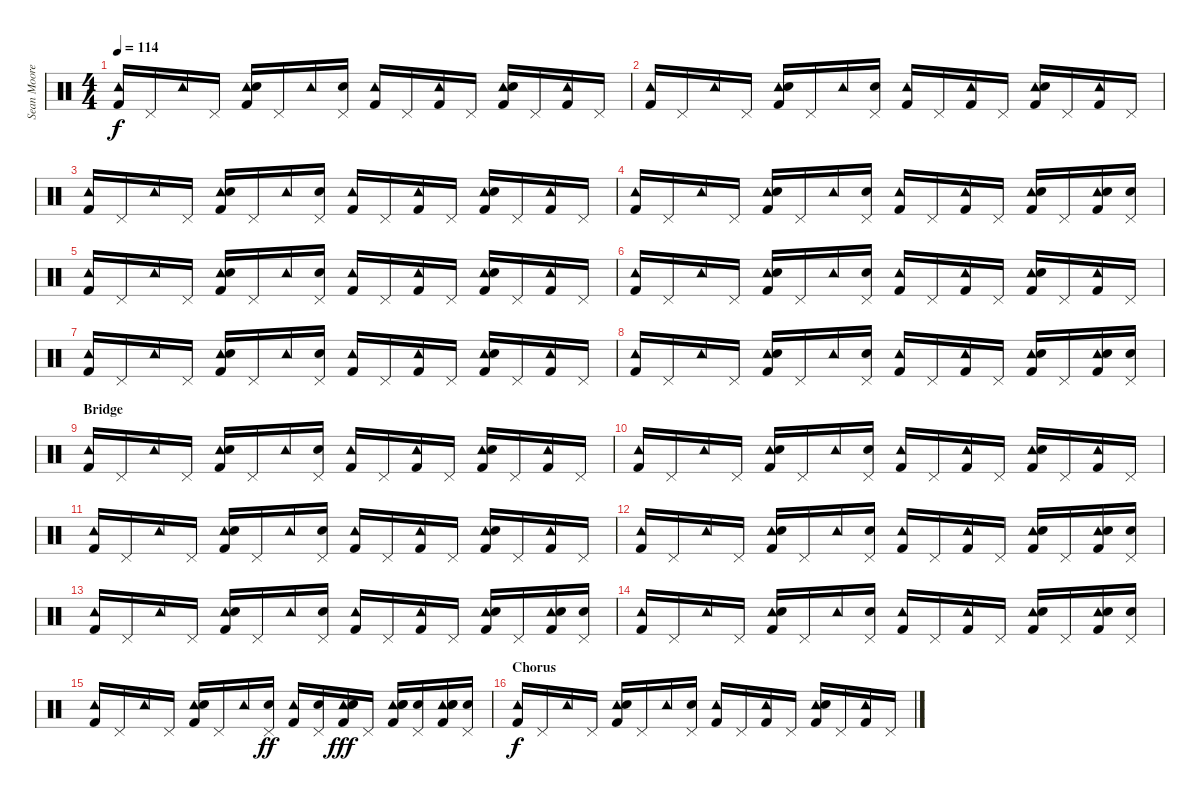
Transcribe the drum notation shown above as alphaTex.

\track ("Sean Moore" "Sean Moore") {instrument percussion}
\staff {score}
\articulation defaults
\ts (4 4)
\tempo 114
\clef neutral
\ks c
("Tambourine (hit)" "Kick (hit) 2").16{dy f} "Pedal Hi-Hat (hit)".16 "Tambourine (hit)".16 "Pedal Hi-Hat (hit)".16 ("Tambourine (hit)" "Snare (hit) 2" "Kick (hit) 2").16 "Pedal Hi-Hat (hit)".16 "Tambourine (hit)".16 ("Snare (hit) 2" "Pedal Hi-Hat (hit)").16 ("Tambourine (hit)" "Kick (hit) 2").16 "Pedal Hi-Hat (hit)".16 ("Tambourine (hit)" "Kick (hit) 2").16 "Pedal Hi-Hat (hit)".16 ("Tambourine (hit)" "Snare (hit) 2" "Kick (hit) 2").16 "Pedal Hi-Hat (hit)".16 ("Tambourine (hit)" "Kick (hit) 2").16 "Pedal Hi-Hat (hit)".16 |
("Tambourine (hit)" "Kick (hit) 2").16 "Pedal Hi-Hat (hit)".16 "Tambourine (hit)".16 "Pedal Hi-Hat (hit)".16 ("Tambourine (hit)" "Snare (hit) 2" "Kick (hit) 2").16 "Pedal Hi-Hat (hit)".16 "Tambourine (hit)".16 ("Snare (hit) 2" "Pedal Hi-Hat (hit)").16 ("Tambourine (hit)" "Kick (hit) 2").16 "Pedal Hi-Hat (hit)".16 ("Tambourine (hit)" "Kick (hit) 2").16 "Pedal Hi-Hat (hit)".16 ("Tambourine (hit)" "Snare (hit) 2" "Kick (hit) 2").16 "Pedal Hi-Hat (hit)".16 ("Tambourine (hit)" "Kick (hit) 2").16 "Pedal Hi-Hat (hit)".16 |
("Tambourine (hit)" "Kick (hit) 2").16 "Pedal Hi-Hat (hit)".16 "Tambourine (hit)".16 "Pedal Hi-Hat (hit)".16 ("Tambourine (hit)" "Snare (hit) 2" "Kick (hit) 2").16 "Pedal Hi-Hat (hit)".16 "Tambourine (hit)".16 ("Snare (hit) 2" "Pedal Hi-Hat (hit)").16 ("Tambourine (hit)" "Kick (hit) 2").16 "Pedal Hi-Hat (hit)".16 ("Tambourine (hit)" "Kick (hit) 2").16 "Pedal Hi-Hat (hit)".16 ("Tambourine (hit)" "Snare (hit) 2" "Kick (hit) 2").16 "Pedal Hi-Hat (hit)".16 ("Tambourine (hit)" "Kick (hit) 2").16 "Pedal Hi-Hat (hit)".16 |
("Tambourine (hit)" "Kick (hit) 2").16 "Pedal Hi-Hat (hit)".16 "Tambourine (hit)".16 "Pedal Hi-Hat (hit)".16 ("Tambourine (hit)" "Snare (hit) 2" "Kick (hit) 2").16 "Pedal Hi-Hat (hit)".16 "Tambourine (hit)".16 ("Snare (hit) 2" "Pedal Hi-Hat (hit)").16 ("Tambourine (hit)" "Kick (hit) 2").16 "Pedal Hi-Hat (hit)".16 ("Tambourine (hit)" "Kick (hit) 2").16 "Pedal Hi-Hat (hit)".16 ("Tambourine (hit)" "Snare (hit) 2" "Kick (hit) 2").16 "Pedal Hi-Hat (hit)".16 ("Tambourine (hit)" "Snare (hit) 2" "Kick (hit) 2").16 ("Snare (hit) 2" "Pedal Hi-Hat (hit)").16 |
("Tambourine (hit)" "Kick (hit) 2").16 "Pedal Hi-Hat (hit)".16 "Tambourine (hit)".16 "Pedal Hi-Hat (hit)".16 ("Tambourine (hit)" "Snare (hit) 2" "Kick (hit) 2").16 "Pedal Hi-Hat (hit)".16 "Tambourine (hit)".16 ("Snare (hit) 2" "Pedal Hi-Hat (hit)").16 ("Tambourine (hit)" "Kick (hit) 2").16 "Pedal Hi-Hat (hit)".16 ("Tambourine (hit)" "Kick (hit) 2").16 "Pedal Hi-Hat (hit)".16 ("Tambourine (hit)" "Snare (hit) 2" "Kick (hit) 2").16 "Pedal Hi-Hat (hit)".16 ("Tambourine (hit)" "Kick (hit) 2").16 "Pedal Hi-Hat (hit)".16 |
("Tambourine (hit)" "Kick (hit) 2").16 "Pedal Hi-Hat (hit)".16 "Tambourine (hit)".16 "Pedal Hi-Hat (hit)".16 ("Tambourine (hit)" "Snare (hit) 2" "Kick (hit) 2").16 "Pedal Hi-Hat (hit)".16 "Tambourine (hit)".16 ("Snare (hit) 2" "Pedal Hi-Hat (hit)").16 ("Tambourine (hit)" "Kick (hit) 2").16 "Pedal Hi-Hat (hit)".16 ("Tambourine (hit)" "Kick (hit) 2").16 "Pedal Hi-Hat (hit)".16 ("Tambourine (hit)" "Snare (hit) 2" "Kick (hit) 2").16 "Pedal Hi-Hat (hit)".16 ("Tambourine (hit)" "Kick (hit) 2").16 "Pedal Hi-Hat (hit)".16 |
("Tambourine (hit)" "Kick (hit) 2").16 "Pedal Hi-Hat (hit)".16 "Tambourine (hit)".16 "Pedal Hi-Hat (hit)".16 ("Tambourine (hit)" "Snare (hit) 2" "Kick (hit) 2").16 "Pedal Hi-Hat (hit)".16 "Tambourine (hit)".16 ("Snare (hit) 2" "Pedal Hi-Hat (hit)").16 ("Tambourine (hit)" "Kick (hit) 2").16 "Pedal Hi-Hat (hit)".16 ("Tambourine (hit)" "Kick (hit) 2").16 "Pedal Hi-Hat (hit)".16 ("Tambourine (hit)" "Snare (hit) 2" "Kick (hit) 2").16 "Pedal Hi-Hat (hit)".16 ("Tambourine (hit)" "Kick (hit) 2").16 "Pedal Hi-Hat (hit)".16 |
("Tambourine (hit)" "Kick (hit) 2").16 "Pedal Hi-Hat (hit)".16 "Tambourine (hit)".16 "Pedal Hi-Hat (hit)".16 ("Tambourine (hit)" "Snare (hit) 2" "Kick (hit) 2").16 "Pedal Hi-Hat (hit)".16 "Tambourine (hit)".16 ("Snare (hit) 2" "Pedal Hi-Hat (hit)").16 ("Tambourine (hit)" "Kick (hit) 2").16 "Pedal Hi-Hat (hit)".16 ("Tambourine (hit)" "Kick (hit) 2").16 "Pedal Hi-Hat (hit)".16 ("Tambourine (hit)" "Snare (hit) 2" "Kick (hit) 2").16 "Pedal Hi-Hat (hit)".16 ("Tambourine (hit)" "Snare (hit) 2" "Kick (hit) 2").16 ("Snare (hit) 2" "Pedal Hi-Hat (hit)").16 |
\section ("" "Bridge")
("Tambourine (hit)" "Kick (hit) 2").16 "Pedal Hi-Hat (hit)".16 "Tambourine (hit)".16 "Pedal Hi-Hat (hit)".16 ("Tambourine (hit)" "Snare (hit) 2" "Kick (hit) 2").16 "Pedal Hi-Hat (hit)".16 "Tambourine (hit)".16 ("Snare (hit) 2" "Pedal Hi-Hat (hit)").16 ("Tambourine (hit)" "Kick (hit) 2").16 "Pedal Hi-Hat (hit)".16 ("Tambourine (hit)" "Kick (hit) 2").16 "Pedal Hi-Hat (hit)".16 ("Tambourine (hit)" "Snare (hit) 2" "Kick (hit) 2").16 "Pedal Hi-Hat (hit)".16 ("Tambourine (hit)" "Kick (hit) 2").16 "Pedal Hi-Hat (hit)".16 |
("Tambourine (hit)" "Kick (hit) 2").16 "Pedal Hi-Hat (hit)".16 "Tambourine (hit)".16 "Pedal Hi-Hat (hit)".16 ("Tambourine (hit)" "Snare (hit) 2" "Kick (hit) 2").16 "Pedal Hi-Hat (hit)".16 "Tambourine (hit)".16 ("Snare (hit) 2" "Pedal Hi-Hat (hit)").16 ("Tambourine (hit)" "Kick (hit) 2").16 "Pedal Hi-Hat (hit)".16 ("Tambourine (hit)" "Kick (hit) 2").16 "Pedal Hi-Hat (hit)".16 ("Tambourine (hit)" "Snare (hit) 2" "Kick (hit) 2").16 "Pedal Hi-Hat (hit)".16 ("Tambourine (hit)" "Kick (hit) 2").16 "Pedal Hi-Hat (hit)".16 |
("Tambourine (hit)" "Kick (hit) 2").16 "Pedal Hi-Hat (hit)".16 "Tambourine (hit)".16 "Pedal Hi-Hat (hit)".16 ("Tambourine (hit)" "Snare (hit) 2" "Kick (hit) 2").16 "Pedal Hi-Hat (hit)".16 "Tambourine (hit)".16 ("Snare (hit) 2" "Pedal Hi-Hat (hit)").16 ("Tambourine (hit)" "Kick (hit) 2").16 "Pedal Hi-Hat (hit)".16 ("Tambourine (hit)" "Kick (hit) 2").16 "Pedal Hi-Hat (hit)".16 ("Tambourine (hit)" "Snare (hit) 2" "Kick (hit) 2").16 "Pedal Hi-Hat (hit)".16 ("Tambourine (hit)" "Kick (hit) 2").16 "Pedal Hi-Hat (hit)".16 |
("Tambourine (hit)" "Kick (hit) 2").16 "Pedal Hi-Hat (hit)".16 "Tambourine (hit)".16 "Pedal Hi-Hat (hit)".16 ("Tambourine (hit)" "Snare (hit) 2" "Kick (hit) 2").16 "Pedal Hi-Hat (hit)".16 "Tambourine (hit)".16 ("Snare (hit) 2" "Pedal Hi-Hat (hit)").16 ("Tambourine (hit)" "Kick (hit) 2").16 "Pedal Hi-Hat (hit)".16 ("Tambourine (hit)" "Kick (hit) 2").16 "Pedal Hi-Hat (hit)".16 ("Tambourine (hit)" "Snare (hit) 2" "Kick (hit) 2").16 "Pedal Hi-Hat (hit)".16 ("Tambourine (hit)" "Snare (hit) 2" "Kick (hit) 2").16 ("Snare (hit) 2" "Pedal Hi-Hat (hit)").16 |
("Tambourine (hit)" "Kick (hit) 2").16 "Pedal Hi-Hat (hit)".16 "Tambourine (hit)".16 "Pedal Hi-Hat (hit)".16 ("Tambourine (hit)" "Snare (hit) 2" "Kick (hit) 2").16 "Pedal Hi-Hat (hit)".16 "Tambourine (hit)".16 ("Snare (hit) 2" "Pedal Hi-Hat (hit)").16 ("Tambourine (hit)" "Kick (hit) 2").16 "Pedal Hi-Hat (hit)".16 ("Tambourine (hit)" "Kick (hit) 2").16 "Pedal Hi-Hat (hit)".16 ("Tambourine (hit)" "Snare (hit) 2" "Kick (hit) 2").16 "Pedal Hi-Hat (hit)".16 ("Tambourine (hit)" "Snare (hit) 2" "Kick (hit) 2").16 ("Snare (hit) 2" "Pedal Hi-Hat (hit)").16 |
("Tambourine (hit)" "Kick (hit) 2").16 "Pedal Hi-Hat (hit)".16 "Tambourine (hit)".16 "Pedal Hi-Hat (hit)".16 ("Tambourine (hit)" "Snare (hit) 2" "Kick (hit) 2").16 "Pedal Hi-Hat (hit)".16 "Tambourine (hit)".16 ("Snare (hit) 2" "Pedal Hi-Hat (hit)").16 ("Tambourine (hit)" "Kick (hit) 2").16 "Pedal Hi-Hat (hit)".16 ("Tambourine (hit)" "Kick (hit) 2").16 "Pedal Hi-Hat (hit)".16 ("Tambourine (hit)" "Snare (hit) 2" "Kick (hit) 2").16 "Pedal Hi-Hat (hit)".16 ("Tambourine (hit)" "Snare (hit) 2" "Kick (hit) 2").16 ("Snare (hit) 2" "Pedal Hi-Hat (hit)").16 |
("Tambourine (hit)" "Kick (hit) 2").16 "Pedal Hi-Hat (hit)".16 "Tambourine (hit)".16 "Pedal Hi-Hat (hit)".16 ("Tambourine (hit)" "Snare (hit) 2" "Kick (hit) 2").16{volume 15} "Pedal Hi-Hat (hit)".16 "Tambourine (hit)".16 ("Snare (hit) 2" "Pedal Hi-Hat (hit)").16{dy ff} ("Tambourine (hit)" "Kick (hit) 2").16 ("Snare (hit) 2" "Pedal Hi-Hat (hit)").16 ("Tambourine (hit)" "Snare (hit) 2" "Electric Snare (hit)" "Kick (hit) 2").16{dy fff} "Pedal Hi-Hat (hit)".16 ("Tambourine (hit)" "Snare (hit) 2" "Electric Snare (hit)" "Kick (hit) 2").16 ("Snare (hit) 2" "Pedal Hi-Hat (hit)").16 ("Tambourine (hit)" "Snare (hit) 2" "Electric Snare (hit)" "Kick (hit) 2").16 ("Snare (hit) 2" "Pedal Hi-Hat (hit)").16 |
\section ("" "Chorus")
("Tambourine (hit)" "Kick (hit) 2").16{dy f} "Pedal Hi-Hat (hit)".16 "Tambourine (hit)".16 "Pedal Hi-Hat (hit)".16 ("Tambourine (hit)" "Snare (hit) 2" "Kick (hit) 2").16 "Pedal Hi-Hat (hit)".16 "Tambourine (hit)".16 ("Snare (hit) 2" "Pedal Hi-Hat (hit)").16 ("Tambourine (hit)" "Kick (hit) 2").16 "Pedal Hi-Hat (hit)".16 ("Tambourine (hit)" "Kick (hit) 2").16 "Pedal Hi-Hat (hit)".16 ("Tambourine (hit)" "Snare (hit) 2" "Kick (hit) 2").16 "Pedal Hi-Hat (hit)".16 ("Tambourine (hit)" "Kick (hit) 2").16 "Pedal Hi-Hat (hit)".16
